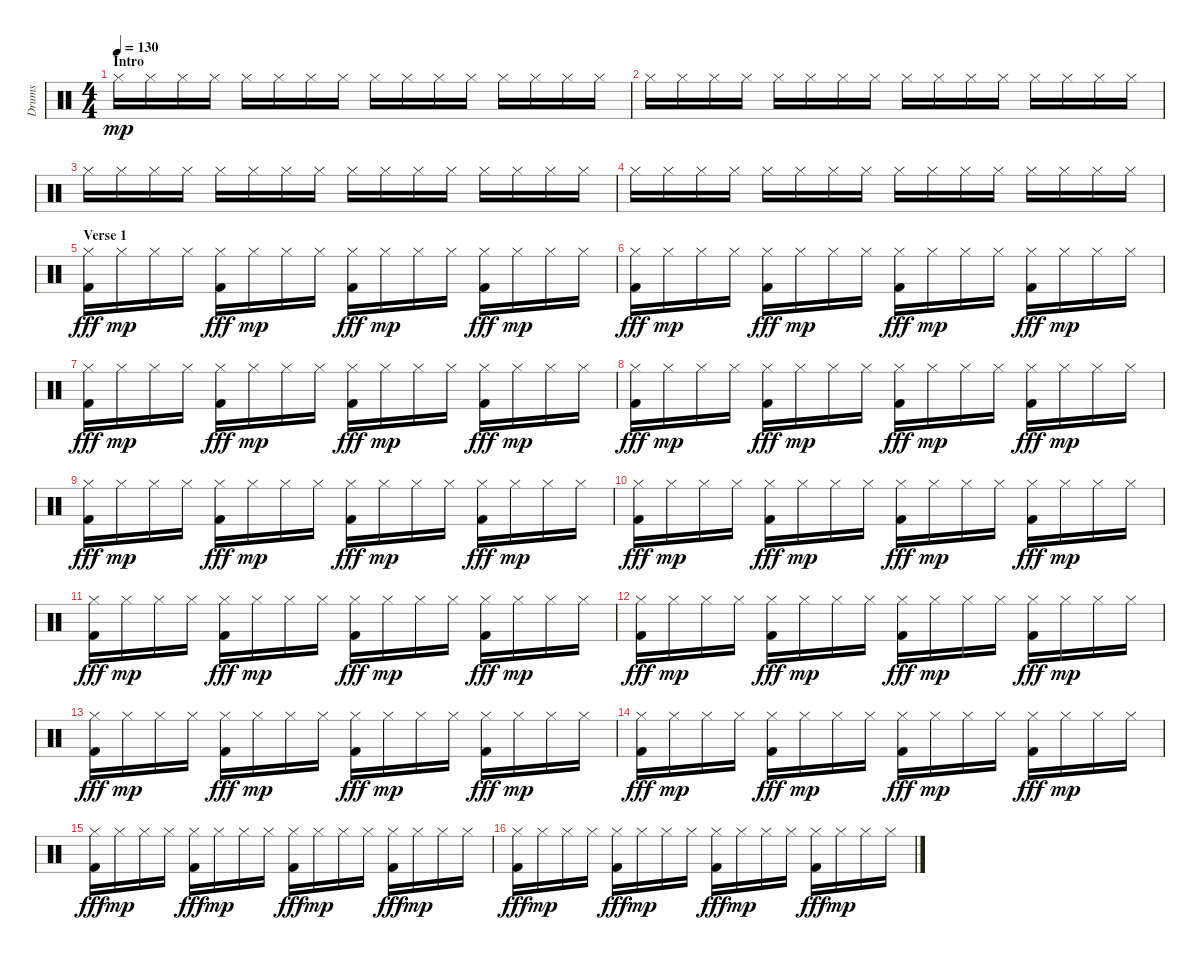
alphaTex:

\track ("Drums" "Drums") {instrument percussion}
\staff {score}
\articulation defaults
\ts (4 4)
\section ("" "Intro")
\tempo 130
\clef neutral
\ks c "Hi-Hat (closed)".16{dy mp} "Hi-Hat (closed)".16 "Hi-Hat (closed)".16 "Hi-Hat (closed)".16 "Hi-Hat (closed)".16 "Hi-Hat (closed)".16 "Hi-Hat (closed)".16 "Hi-Hat (closed)".16 "Hi-Hat (closed)".16 "Hi-Hat (closed)".16 "Hi-Hat (closed)".16 "Hi-Hat (closed)".16 "Hi-Hat (closed)".16 "Hi-Hat (closed)".16 "Hi-Hat (closed)".16 "Hi-Hat (closed)".16
|
"Hi-Hat (closed)".16 "Hi-Hat (closed)".16 "Hi-Hat (closed)".16 "Hi-Hat (closed)".16 "Hi-Hat (closed)".16 "Hi-Hat (closed)".16 "Hi-Hat (closed)".16 "Hi-Hat (closed)".16 "Hi-Hat (closed)".16 "Hi-Hat (closed)".16 "Hi-Hat (closed)".16 "Hi-Hat (closed)".16 "Hi-Hat (closed)".16 "Hi-Hat (closed)".16 "Hi-Hat (closed)".16 "Hi-Hat (closed)".16 |
"Hi-Hat (closed)".16 "Hi-Hat (closed)".16 "Hi-Hat (closed)".16 "Hi-Hat (closed)".16 "Hi-Hat (closed)".16 "Hi-Hat (closed)".16 "Hi-Hat (closed)".16 "Hi-Hat (closed)".16 "Hi-Hat (closed)".16 "Hi-Hat (closed)".16 "Hi-Hat (closed)".16 "Hi-Hat (closed)".16 "Hi-Hat (closed)".16 "Hi-Hat (closed)".16 "Hi-Hat (closed)".16 "Hi-Hat (closed)".16 |
"Hi-Hat (closed)".16 "Hi-Hat (closed)".16 "Hi-Hat (closed)".16 "Hi-Hat (closed)".16 "Hi-Hat (closed)".16 "Hi-Hat (closed)".16 "Hi-Hat (closed)".16 "Hi-Hat (closed)".16 "Hi-Hat (closed)".16 "Hi-Hat (closed)".16 "Hi-Hat (closed)".16 "Hi-Hat (closed)".16 "Hi-Hat (closed)".16 "Hi-Hat (closed)".16 "Hi-Hat (closed)".16 "Hi-Hat (closed)".16 |
\section ("" "Verse 1")
("Hi-Hat (closed)" "Kick (hit) 2").16{dy fff} "Hi-Hat (closed)".16{dy mp} "Hi-Hat (closed)".16 "Hi-Hat (closed)".16 ("Hi-Hat (closed)" "Kick (hit) 2").16{dy fff} "Hi-Hat (closed)".16{dy mp} "Hi-Hat (closed)".16 "Hi-Hat (closed)".16 ("Hi-Hat (closed)" "Kick (hit) 2").16{dy fff} "Hi-Hat (closed)".16{dy mp} "Hi-Hat (closed)".16 "Hi-Hat (closed)".16 ("Hi-Hat (closed)" "Kick (hit) 2").16{dy fff} "Hi-Hat (closed)".16{dy mp} "Hi-Hat (closed)".16 "Hi-Hat (closed)".16 |
("Hi-Hat (closed)" "Kick (hit) 2").16{dy fff} "Hi-Hat (closed)".16{dy mp} "Hi-Hat (closed)".16 "Hi-Hat (closed)".16 ("Hi-Hat (closed)" "Kick (hit) 2").16{dy fff} "Hi-Hat (closed)".16{dy mp} "Hi-Hat (closed)".16 "Hi-Hat (closed)".16 ("Hi-Hat (closed)" "Kick (hit) 2").16{dy fff} "Hi-Hat (closed)".16{dy mp} "Hi-Hat (closed)".16 "Hi-Hat (closed)".16 ("Hi-Hat (closed)" "Kick (hit) 2").16{dy fff} "Hi-Hat (closed)".16{dy mp} "Hi-Hat (closed)".16 "Hi-Hat (closed)".16 |
("Hi-Hat (closed)" "Kick (hit) 2").16{dy fff} "Hi-Hat (closed)".16{dy mp} "Hi-Hat (closed)".16 "Hi-Hat (closed)".16 ("Hi-Hat (closed)" "Kick (hit) 2").16{dy fff} "Hi-Hat (closed)".16{dy mp} "Hi-Hat (closed)".16 "Hi-Hat (closed)".16 ("Hi-Hat (closed)" "Kick (hit) 2").16{dy fff} "Hi-Hat (closed)".16{dy mp} "Hi-Hat (closed)".16 "Hi-Hat (closed)".16 ("Hi-Hat (closed)" "Kick (hit) 2").16{dy fff} "Hi-Hat (closed)".16{dy mp} "Hi-Hat (closed)".16 "Hi-Hat (closed)".16 |
("Hi-Hat (closed)" "Kick (hit) 2").16{dy fff} "Hi-Hat (closed)".16{dy mp} "Hi-Hat (closed)".16 "Hi-Hat (closed)".16 ("Hi-Hat (closed)" "Kick (hit) 2").16{dy fff} "Hi-Hat (closed)".16{dy mp} "Hi-Hat (closed)".16 "Hi-Hat (closed)".16 ("Hi-Hat (closed)" "Kick (hit) 2").16{dy fff} "Hi-Hat (closed)".16{dy mp} "Hi-Hat (closed)".16 "Hi-Hat (closed)".16 ("Hi-Hat (closed)" "Kick (hit) 2").16{dy fff} "Hi-Hat (closed)".16{dy mp} "Hi-Hat (closed)".16 "Hi-Hat (closed)".16 |
("Hi-Hat (closed)" "Kick (hit) 2").16{dy fff} "Hi-Hat (closed)".16{dy mp} "Hi-Hat (closed)".16 "Hi-Hat (closed)".16 ("Hi-Hat (closed)" "Kick (hit) 2").16{dy fff} "Hi-Hat (closed)".16{dy mp} "Hi-Hat (closed)".16 "Hi-Hat (closed)".16 ("Hi-Hat (closed)" "Kick (hit) 2").16{dy fff} "Hi-Hat (closed)".16{dy mp} "Hi-Hat (closed)".16 "Hi-Hat (closed)".16 ("Hi-Hat (closed)" "Kick (hit) 2").16{dy fff} "Hi-Hat (closed)".16{dy mp} "Hi-Hat (closed)".16 "Hi-Hat (closed)".16 |
("Hi-Hat (closed)" "Kick (hit) 2").16{dy fff} "Hi-Hat (closed)".16{dy mp} "Hi-Hat (closed)".16 "Hi-Hat (closed)".16 ("Hi-Hat (closed)" "Kick (hit) 2").16{dy fff} "Hi-Hat (closed)".16{dy mp} "Hi-Hat (closed)".16 "Hi-Hat (closed)".16 ("Hi-Hat (closed)" "Kick (hit) 2").16{dy fff} "Hi-Hat (closed)".16{dy mp} "Hi-Hat (closed)".16 "Hi-Hat (closed)".16 ("Hi-Hat (closed)" "Kick (hit) 2").16{dy fff} "Hi-Hat (closed)".16{dy mp} "Hi-Hat (closed)".16 "Hi-Hat (closed)".16 |
("Hi-Hat (closed)" "Kick (hit) 2").16{dy fff} "Hi-Hat (closed)".16{dy mp} "Hi-Hat (closed)".16 "Hi-Hat (closed)".16 ("Hi-Hat (closed)" "Kick (hit) 2").16{dy fff} "Hi-Hat (closed)".16{dy mp} "Hi-Hat (closed)".16 "Hi-Hat (closed)".16 ("Hi-Hat (closed)" "Kick (hit) 2").16{dy fff} "Hi-Hat (closed)".16{dy mp} "Hi-Hat (closed)".16 "Hi-Hat (closed)".16 ("Hi-Hat (closed)" "Kick (hit) 2").16{dy fff} "Hi-Hat (closed)".16{dy mp} "Hi-Hat (closed)".16 "Hi-Hat (closed)".16 |
("Hi-Hat (closed)" "Kick (hit) 2").16{dy fff} "Hi-Hat (closed)".16{dy mp} "Hi-Hat (closed)".16 "Hi-Hat (closed)".16 ("Hi-Hat (closed)" "Kick (hit) 2").16{dy fff} "Hi-Hat (closed)".16{dy mp} "Hi-Hat (closed)".16 "Hi-Hat (closed)".16 ("Hi-Hat (closed)" "Kick (hit) 2").16{dy fff} "Hi-Hat (closed)".16{dy mp} "Hi-Hat (closed)".16 "Hi-Hat (closed)".16 ("Hi-Hat (closed)" "Kick (hit) 2").16{dy fff} "Hi-Hat (closed)".16{dy mp} "Hi-Hat (closed)".16 "Hi-Hat (closed)".16 |
("Hi-Hat (closed)" "Kick (hit) 2").16{dy fff} "Hi-Hat (closed)".16{dy mp} "Hi-Hat (closed)".16 "Hi-Hat (closed)".16 ("Hi-Hat (closed)" "Kick (hit) 2").16{dy fff} "Hi-Hat (closed)".16{dy mp} "Hi-Hat (closed)".16 "Hi-Hat (closed)".16 ("Hi-Hat (closed)" "Kick (hit) 2").16{dy fff} "Hi-Hat (closed)".16{dy mp} "Hi-Hat (closed)".16 "Hi-Hat (closed)".16 ("Hi-Hat (closed)" "Kick (hit) 2").16{dy fff} "Hi-Hat (closed)".16{dy mp} "Hi-Hat (closed)".16 "Hi-Hat (closed)".16 |
("Hi-Hat (closed)" "Kick (hit) 2").16{dy fff} "Hi-Hat (closed)".16{dy mp} "Hi-Hat (closed)".16 "Hi-Hat (closed)".16 ("Hi-Hat (closed)" "Kick (hit) 2").16{dy fff} "Hi-Hat (closed)".16{dy mp} "Hi-Hat (closed)".16 "Hi-Hat (closed)".16 ("Hi-Hat (closed)" "Kick (hit) 2").16{dy fff} "Hi-Hat (closed)".16{dy mp} "Hi-Hat (closed)".16 "Hi-Hat (closed)".16 ("Hi-Hat (closed)" "Kick (hit) 2").16{dy fff} "Hi-Hat (closed)".16{dy mp} "Hi-Hat (closed)".16 "Hi-Hat (closed)".16 |
("Hi-Hat (closed)" "Kick (hit) 2").16{dy fff} "Hi-Hat (closed)".16{dy mp} "Hi-Hat (closed)".16 "Hi-Hat (closed)".16 ("Hi-Hat (closed)" "Kick (hit) 2").16{dy fff} "Hi-Hat (closed)".16{dy mp} "Hi-Hat (closed)".16 "Hi-Hat (closed)".16 ("Hi-Hat (closed)" "Kick (hit) 2").16{dy fff} "Hi-Hat (closed)".16{dy mp} "Hi-Hat (closed)".16 "Hi-Hat (closed)".16 ("Hi-Hat (closed)" "Kick (hit) 2").16{dy fff} "Hi-Hat (closed)".16{dy mp} "Hi-Hat (closed)".16 "Hi-Hat (closed)".16 |
("Hi-Hat (closed)" "Kick (hit) 2").16{dy fff} "Hi-Hat (closed)".16{dy mp} "Hi-Hat (closed)".16 "Hi-Hat (closed)".16 ("Hi-Hat (closed)" "Kick (hit) 2").16{dy fff} "Hi-Hat (closed)".16{dy mp} "Hi-Hat (closed)".16 "Hi-Hat (closed)".16 ("Hi-Hat (closed)" "Kick (hit) 2").16{dy fff} "Hi-Hat (closed)".16{dy mp} "Hi-Hat (closed)".16 "Hi-Hat (closed)".16 ("Hi-Hat (closed)" "Kick (hit) 2").16{dy fff} "Hi-Hat (closed)".16{dy mp} "Hi-Hat (closed)".16 "Hi-Hat (closed)".16
